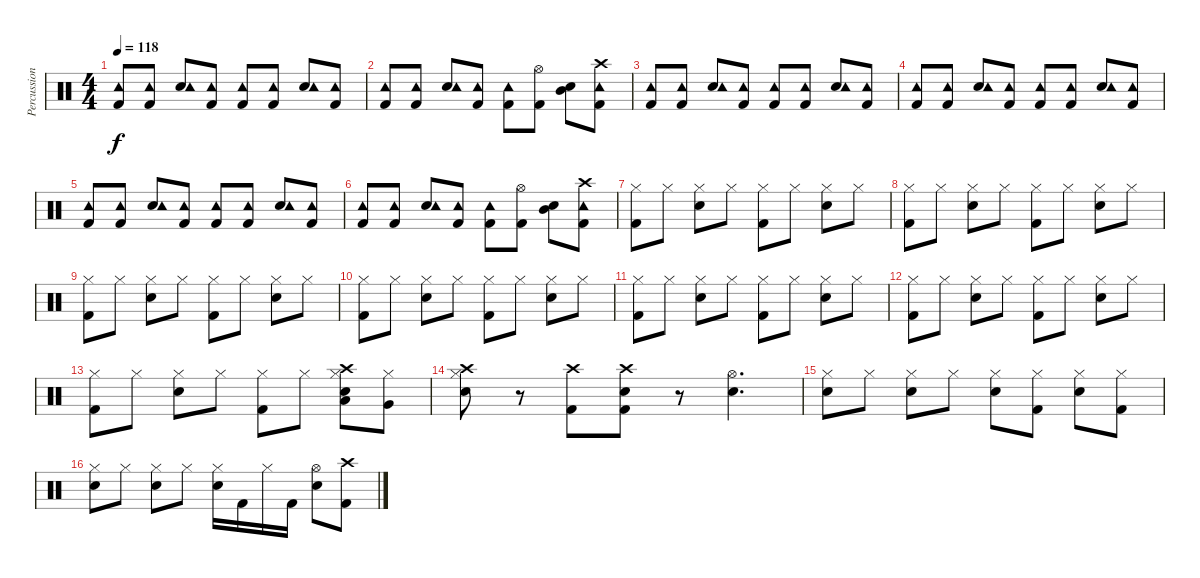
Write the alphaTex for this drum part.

\track ("Percussion" "Percussion") {instrument percussion}
\staff {score}
\articulation defaults
\ts (4 4)
\tempo 118
\clef neutral
\ks c
("Kick (hit) 2" "Tambourine (hit)").8{dy f} ("Kick (hit) 2" "Tambourine (hit)").8 ("Snare (hit) 2" "Tambourine (hit)").8 ("Kick (hit) 2" "Tambourine (hit)").8 ("Kick (hit) 2" "Tambourine (hit)").8 ("Kick (hit) 2" "Tambourine (hit)").8 ("Snare (hit) 2" "Tambourine (hit)").8 ("Kick (hit) 2" "Tambourine (hit)").8 |
("Kick (hit) 2" "Tambourine (hit)").8 ("Kick (hit) 2" "Tambourine (hit)").8 ("Snare (hit) 2" "Tambourine (hit)").8 ("Kick (hit) 2" "Tambourine (hit)").8 ("Kick (hit) 2" "Tambourine (hit)").8 ("Kick (hit) 2" "Hi-Hat (open)").8 ("Mid Tom (hit)" "Snare (hit) 2").8 ("Crash high (hit)" "Kick (hit) 2" "Tambourine (hit)").8 |
("Kick (hit) 2" "Tambourine (hit)").8 ("Kick (hit) 2" "Tambourine (hit)").8 ("Snare (hit) 2" "Tambourine (hit)").8 ("Kick (hit) 2" "Tambourine (hit)").8 ("Kick (hit) 2" "Tambourine (hit)").8 ("Kick (hit) 2" "Tambourine (hit)").8 ("Snare (hit) 2" "Tambourine (hit)").8 ("Kick (hit) 2" "Tambourine (hit)").8 |
("Kick (hit) 2" "Tambourine (hit)").8 ("Kick (hit) 2" "Tambourine (hit)").8 ("Snare (hit) 2" "Tambourine (hit)").8 ("Kick (hit) 2" "Tambourine (hit)").8 ("Kick (hit) 2" "Tambourine (hit)").8 ("Kick (hit) 2" "Tambourine (hit)").8 ("Snare (hit) 2" "Tambourine (hit)").8 ("Kick (hit) 2" "Tambourine (hit)").8 |
("Kick (hit) 2" "Tambourine (hit)").8 ("Kick (hit) 2" "Tambourine (hit)").8 ("Snare (hit) 2" "Tambourine (hit)").8 ("Kick (hit) 2" "Tambourine (hit)").8 ("Kick (hit) 2" "Tambourine (hit)").8 ("Kick (hit) 2" "Tambourine (hit)").8 ("Snare (hit) 2" "Tambourine (hit)").8 ("Kick (hit) 2" "Tambourine (hit)").8 |
("Kick (hit) 2" "Tambourine (hit)").8 ("Kick (hit) 2" "Tambourine (hit)").8 ("Snare (hit) 2" "Tambourine (hit)").8 ("Kick (hit) 2" "Tambourine (hit)").8 ("Kick (hit) 2" "Tambourine (hit)").8 ("Kick (hit) 2" "Hi-Hat (open)").8 ("Mid Tom (hit)" "Snare (hit) 2").8 ("Crash high (hit)" "Kick (hit) 2" "Tambourine (hit)").8 |
("Kick (hit) 2" "Hi-Hat (closed)").8 "Hi-Hat (closed)".8 ("Snare (hit) 2" "Hi-Hat (closed)").8 "Hi-Hat (closed)".8 ("Kick (hit) 2" "Hi-Hat (closed)").8 "Hi-Hat (closed)".8 ("Snare (hit) 2" "Hi-Hat (closed)").8 "Hi-Hat (closed)".8 |
("Kick (hit) 2" "Hi-Hat (closed)").8 "Hi-Hat (closed)".8 ("Snare (hit) 2" "Hi-Hat (closed)").8 "Hi-Hat (closed)".8 ("Kick (hit) 2" "Hi-Hat (closed)").8 "Hi-Hat (closed)".8 ("Snare (hit) 2" "Hi-Hat (closed)").8 "Hi-Hat (closed)".8 |
("Kick (hit) 2" "Hi-Hat (closed)").8 "Hi-Hat (closed)".8 ("Snare (hit) 2" "Hi-Hat (closed)").8 "Hi-Hat (closed)".8 ("Kick (hit) 2" "Hi-Hat (closed)").8 "Hi-Hat (closed)".8 ("Snare (hit) 2" "Hi-Hat (closed)").8 "Hi-Hat (closed)".8 |
("Kick (hit) 2" "Hi-Hat (closed)").8 "Hi-Hat (closed)".8 ("Snare (hit) 2" "Hi-Hat (closed)").8 "Hi-Hat (closed)".8 ("Kick (hit) 2" "Hi-Hat (closed)").8 "Hi-Hat (closed)".8 ("Snare (hit) 2" "Hi-Hat (closed)").8 "Hi-Hat (closed)".8 |
("Kick (hit) 2" "Hi-Hat (closed)").8 "Hi-Hat (closed)".8 ("Snare (hit) 2" "Hi-Hat (closed)").8 "Hi-Hat (closed)".8 ("Kick (hit) 2" "Hi-Hat (closed)").8 "Hi-Hat (closed)".8 ("Snare (hit) 2" "Hi-Hat (closed)").8 "Hi-Hat (closed)".8 |
("Kick (hit) 2" "Hi-Hat (closed)").8 "Hi-Hat (closed)".8 ("Snare (hit) 2" "Hi-Hat (closed)").8 "Hi-Hat (closed)".8 ("Kick (hit) 2" "Hi-Hat (closed)").8 "Hi-Hat (closed)".8 ("Snare (hit) 2" "Hi-Hat (closed)").8 "Hi-Hat (closed)".8 |
("Kick (hit) 2" "Hi-Hat (closed)").8 "Hi-Hat (closed)".8 ("Snare (hit) 2" "Hi-Hat (closed)").8 "Hi-Hat (closed)".8 ("Kick (hit) 2" "Hi-Hat (closed)").8 "Hi-Hat (closed)".8 ("Crash high (hit)" "Low Tom (hit)" "Snare (hit) 2" "Hi-Hat (closed)").8 ("Very Low Tom (hit)" "Hi-Hat (closed)").8 |
("Crash high (hit)" "Snare (hit) 2" "Hi-Hat (closed)").8 r.8 ("Crash high (hit)" "Kick (hit) 2").8 ("Crash high (hit)" "Snare (hit) 2" "Kick (hit) 2").8 r.8 ("Hi-Hat (open)" "Snare (hit) 2").4{d} |
("Snare (hit) 2" "Hi-Hat (closed)").8 "Hi-Hat (closed)".8 ("Snare (hit) 2" "Hi-Hat (closed)").8 "Hi-Hat (closed)".8 ("Snare (hit) 2" "Hi-Hat (closed)").8 ("Kick (hit) 2" "Hi-Hat (closed)").8 ("Snare (hit) 2" "Hi-Hat (closed)").8 ("Kick (hit) 2" "Hi-Hat (closed)").8 |
("Snare (hit) 2" "Hi-Hat (closed)").8 "Hi-Hat (closed)".8 ("Snare (hit) 2" "Hi-Hat (closed)").8 "Hi-Hat (closed)".8 ("Snare (hit) 2" "Hi-Hat (closed)").16 "Kick (hit) 2".16 "Hi-Hat (closed)".16 "Kick (hit) 2".16 ("Snare (hit) 2" "Hi-Hat (open)").8 ("Crash high (hit)" "Kick (hit) 2").8
